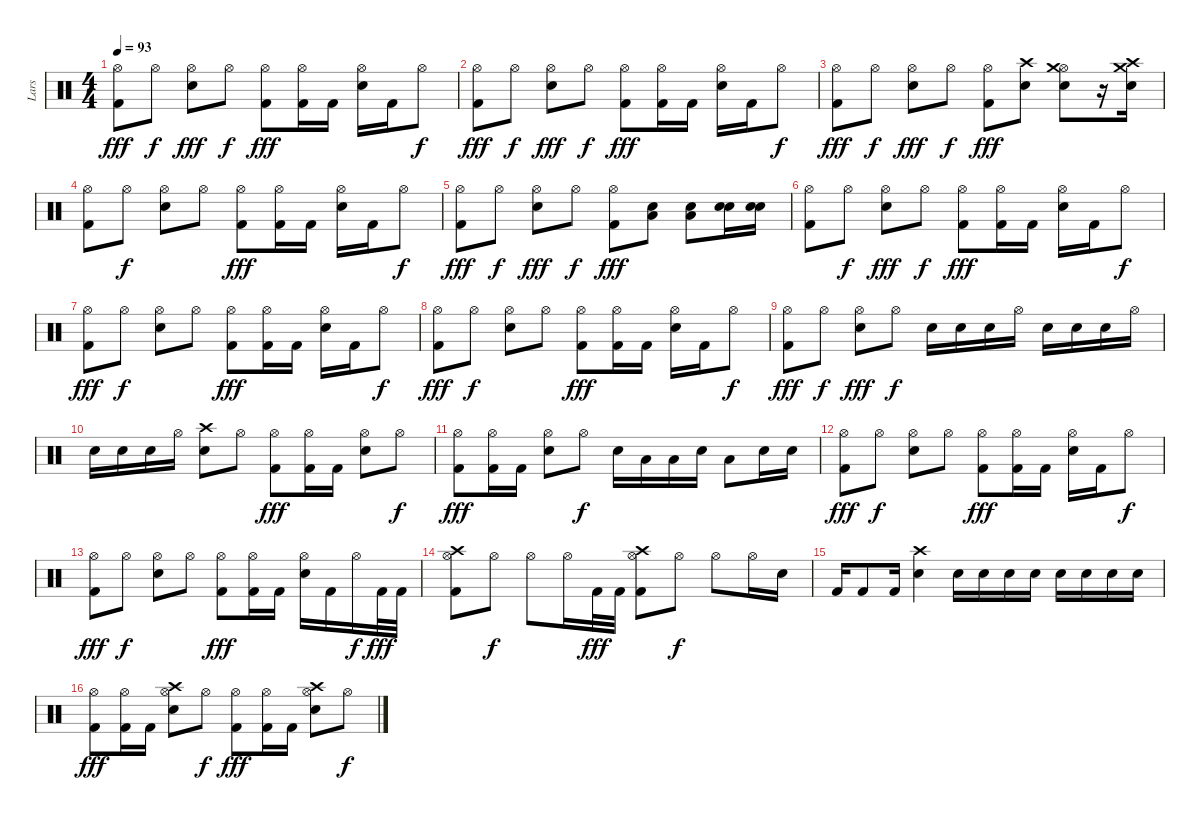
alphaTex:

\track ("Lars" "Lars") {instrument percussion}
\staff {score}
\articulation defaults
\ts (4 4)
\tempo 93
\clef neutral
\ks c
("Hi-Hat (open)" "Kick (hit) 2").8{dy fff} "Hi-Hat (open)".8{dy f} ("Hi-Hat (open)" "Snare (hit) 2").8{dy fff} "Hi-Hat (open)".8{dy f} ("Hi-Hat (open)" "Kick (hit) 2").8{dy fff} ("Hi-Hat (open)" "Kick (hit) 2").16 "Kick (hit) 2".16 ("Hi-Hat (open)" "Snare (hit) 2").16 "Kick (hit) 2".16 "Hi-Hat (open)".8{dy f} |
("Hi-Hat (open)" "Kick (hit) 2").8{dy fff} "Hi-Hat (open)".8{dy f} ("Hi-Hat (open)" "Snare (hit) 2").8{dy fff} "Hi-Hat (open)".8{dy f} ("Hi-Hat (open)" "Kick (hit) 2").8{dy fff} ("Hi-Hat (open)" "Kick (hit) 2").16 "Kick (hit) 2".16 ("Hi-Hat (open)" "Snare (hit) 2").16 "Kick (hit) 2".16 "Hi-Hat (open)".8{dy f} |
("Hi-Hat (open)" "Kick (hit) 2").8{dy fff} "Hi-Hat (open)".8{dy f} ("Hi-Hat (open)" "Snare (hit) 2").8{dy fff} "Hi-Hat (open)".8{dy f} ("Hi-Hat (open)" "Kick (hit) 2").8{dy fff} ("Crash high (hit)" "Electric Snare (hit)").8 ("Hi-Hat (open)" "Crash medium (hit)" "Electric Snare (hit)").8 r.16 ("Crash medium (hit)" "Crash high (hit)" "Electric Snare (hit)").16 |
("Hi-Hat (open)" "Kick (hit) 2").8 "Hi-Hat (open)".8{dy f} ("Hi-Hat (open)" "Snare (hit) 2").8 "Hi-Hat (open)".8 ("Hi-Hat (open)" "Kick (hit) 2").8{dy fff} ("Hi-Hat (open)" "Kick (hit) 2").16 "Kick (hit) 2".16 ("Hi-Hat (open)" "Snare (hit) 2").16 "Kick (hit) 2".16 "Hi-Hat (open)".8{dy f} |
("Hi-Hat (open)" "Kick (hit) 2").8{dy fff} "Hi-Hat (open)".8{dy f} ("Hi-Hat (open)" "Snare (hit) 2").8{dy fff} "Hi-Hat (open)".8{dy f} ("Hi-Hat (open)" "Kick (hit) 2").8{dy fff} ("Low Floor Tom (hit)" "Electric Snare (hit)").8 ("Low Floor Tom (hit)" "Electric Snare (hit)").8 ("Electric Snare (hit)" "Electric Snare (hit)").16 ("Electric Snare (hit)" "Electric Snare (hit)").16 |
("Hi-Hat (open)" "Kick (hit) 2").8 "Hi-Hat (open)".8{dy f} ("Hi-Hat (open)" "Snare (hit) 2").8{dy fff} "Hi-Hat (open)".8{dy f} ("Hi-Hat (open)" "Kick (hit) 2").8{dy fff} ("Hi-Hat (open)" "Kick (hit) 2").16 "Kick (hit) 2".16 ("Hi-Hat (open)" "Snare (hit) 2").16 "Kick (hit) 2".16 "Hi-Hat (open)".8{dy f} |
("Hi-Hat (open)" "Kick (hit) 2").8{dy fff} "Hi-Hat (open)".8{dy f} ("Hi-Hat (open)" "Snare (hit) 2").8 "Hi-Hat (open)".8 ("Hi-Hat (open)" "Kick (hit) 2").8{dy fff} ("Hi-Hat (open)" "Kick (hit) 2").16 "Kick (hit) 2".16 ("Hi-Hat (open)" "Snare (hit) 2").16 "Kick (hit) 2".16 "Hi-Hat (open)".8{dy f} |
("Hi-Hat (open)" "Kick (hit) 2").8{dy fff} "Hi-Hat (open)".8{dy f} ("Hi-Hat (open)" "Snare (hit) 2").8 "Hi-Hat (open)".8 ("Hi-Hat (open)" "Kick (hit) 2").8{dy fff} ("Hi-Hat (open)" "Kick (hit) 2").16 "Kick (hit) 2".16 ("Hi-Hat (open)" "Snare (hit) 2").16 "Kick (hit) 2".16 "Hi-Hat (open)".8{dy f} |
("Hi-Hat (open)" "Kick (hit) 2").8{dy fff} "Hi-Hat (open)".8{dy f} ("Hi-Hat (open)" "Snare (hit) 2").8{dy fff} "Hi-Hat (open)".8{dy f} "Snare (hit) 2".16 "Snare (hit) 2".16 "Snare (hit) 2".16 "Hi-Hat (open)".16 "Snare (hit) 2".16 "Snare (hit) 2".16 "Snare (hit) 2".16 "Hi-Hat (open)".16 |
"Snare (hit) 2".16 "Snare (hit) 2".16 "Snare (hit) 2".16 "Hi-Hat (open)".16 ("Crash high (hit)" "Snare (hit) 2").8 "Hi-Hat (open)".8 ("Hi-Hat (open)" "Kick (hit) 2").8{dy fff} ("Hi-Hat (open)" "Kick (hit) 2").16 "Kick (hit) 2".16 ("Hi-Hat (open)" "Snare (hit) 2").8 "Hi-Hat (open)".8{dy f} |
("Hi-Hat (open)" "Kick (hit) 2").8{dy fff} ("Hi-Hat (open)" "Kick (hit) 2").16 "Kick (hit) 2".16 ("Hi-Hat (open)" "Snare (hit) 2").8 "Hi-Hat (open)".8{dy f} "Electric Snare (hit)".16 "Low Tom (hit)".16 "Low Floor Tom (hit)".16 "Electric Snare (hit)".16 "Low Tom (hit)".8 "Electric Snare (hit)".16 "Electric Snare (hit)".16 |
("Hi-Hat (open)" "Kick (hit) 2").8{dy fff} "Hi-Hat (open)".8{dy f} ("Hi-Hat (open)" "Snare (hit) 2").8 "Hi-Hat (open)".8 ("Hi-Hat (open)" "Kick (hit) 2").8{dy fff} ("Hi-Hat (open)" "Kick (hit) 2").16 "Kick (hit) 2".16 ("Hi-Hat (open)" "Snare (hit) 2").16 "Kick (hit) 2".16 "Hi-Hat (open)".8{dy f} |
("Hi-Hat (open)" "Kick (hit) 2").8{dy fff} "Hi-Hat (open)".8{dy f} ("Hi-Hat (open)" "Snare (hit) 2").8 "Hi-Hat (open)".8 ("Hi-Hat (open)" "Kick (hit) 2").8{dy fff} ("Hi-Hat (open)" "Kick (hit) 2").16 "Kick (hit) 2".16 ("Hi-Hat (open)" "Snare (hit) 2").16 "Kick (hit) 2".16 "Hi-Hat (open)".16{dy f} "Kick (hit) 2".32{dy fff} "Kick (hit) 2".32 |
("Crash high (hit)" "Hi-Hat (open)" "Kick (hit) 2").8 "Hi-Hat (open)".8{dy f} "Hi-Hat (open)".8 "Hi-Hat (open)".16 "Kick (hit) 2".32{dy fff} "Kick (hit) 2".32 ("Crash high (hit)" "Hi-Hat (open)" "Kick (hit) 2").8 "Hi-Hat (open)".8{dy f} "Hi-Hat (open)".8 "Hi-Hat (open)".16 "Electric Snare (hit)".16 |
"Kick (hit) 2".16 "Kick (hit) 2".8 "Kick (hit) 2".16 ("Crash high (hit)" "Electric Snare (hit)").4 "Snare (hit) 2".16 "Snare (hit) 2".16 "Snare (hit) 2".16 "Snare (hit) 2".16 "Snare (hit) 2".16 "Snare (hit) 2".16 "Snare (hit) 2".16 "Snare (hit) 2".16 |
("Hi-Hat (open)" "Kick (hit) 2").8{dy fff} ("Hi-Hat (open)" "Kick (hit) 2").16 "Kick (hit) 2".16 ("Crash high (hit)" "Hi-Hat (open)" "Snare (hit) 2").8 "Hi-Hat (open)".8{dy f} ("Hi-Hat (open)" "Kick (hit) 2").8{dy fff} ("Hi-Hat (open)" "Kick (hit) 2").16 "Kick (hit) 2".16 ("Crash high (hit)" "Hi-Hat (open)" "Snare (hit) 2").8 "Hi-Hat (open)".8{dy f}
